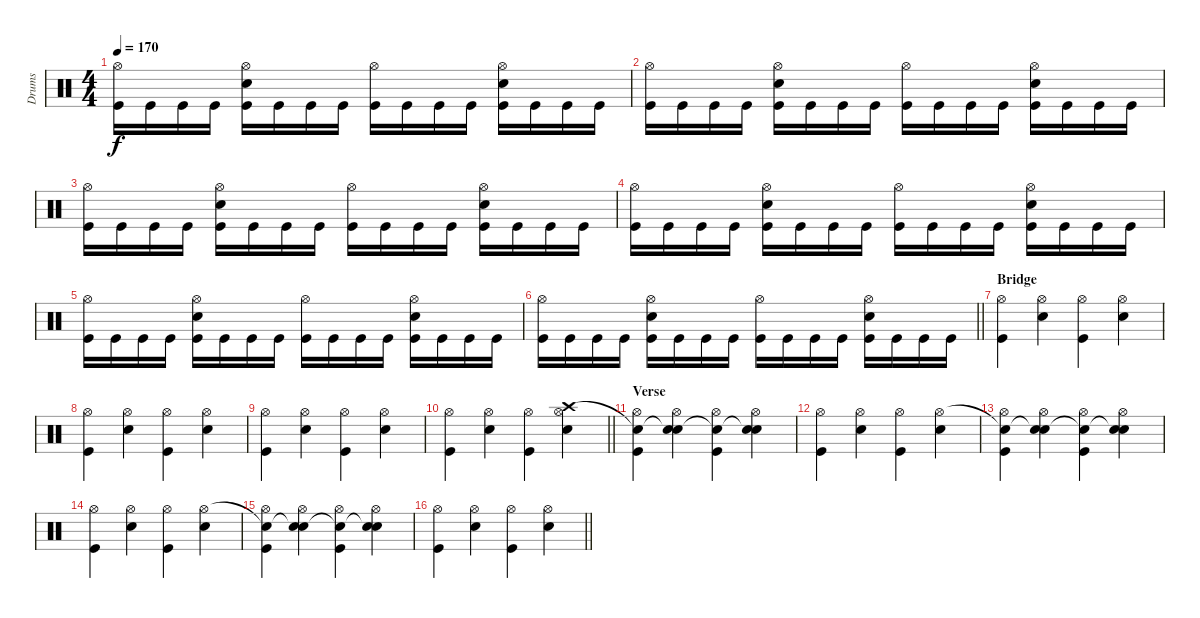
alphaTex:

\track ("Drums" "Drums") {instrument percussion}
\staff {score}
\articulation defaults
\ts (4 4)
\tempo 170
\clef neutral
\ks c
("Hi-Hat (open)" "Kick (hit)").16{dy f} "Kick (hit)".16 "Kick (hit)".16 "Kick (hit)".16 ("Hi-Hat (open)" "Snare (hit) 2" "Kick (hit)").16 "Kick (hit)".16 "Kick (hit)".16 "Kick (hit)".16 ("Hi-Hat (open)" "Kick (hit)").16 "Kick (hit)".16 "Kick (hit)".16 "Kick (hit)".16 ("Hi-Hat (open)" "Snare (hit) 2" "Kick (hit)").16 "Kick (hit)".16 "Kick (hit)".16 "Kick (hit)".16 |
("Hi-Hat (open)" "Kick (hit)").16 "Kick (hit)".16 "Kick (hit)".16 "Kick (hit)".16 ("Hi-Hat (open)" "Snare (hit) 2" "Kick (hit)").16 "Kick (hit)".16 "Kick (hit)".16 "Kick (hit)".16 ("Hi-Hat (open)" "Kick (hit)").16 "Kick (hit)".16 "Kick (hit)".16 "Kick (hit)".16 ("Hi-Hat (open)" "Snare (hit) 2" "Kick (hit)").16 "Kick (hit)".16 "Kick (hit)".16 "Kick (hit)".16 |
("Hi-Hat (open)" "Kick (hit)").16 "Kick (hit)".16 "Kick (hit)".16 "Kick (hit)".16 ("Hi-Hat (open)" "Snare (hit) 2" "Kick (hit)").16 "Kick (hit)".16 "Kick (hit)".16 "Kick (hit)".16 ("Hi-Hat (open)" "Kick (hit)").16 "Kick (hit)".16 "Kick (hit)".16 "Kick (hit)".16 ("Hi-Hat (open)" "Snare (hit) 2" "Kick (hit)").16 "Kick (hit)".16 "Kick (hit)".16 "Kick (hit)".16 |
("Hi-Hat (open)" "Kick (hit)").16 "Kick (hit)".16 "Kick (hit)".16 "Kick (hit)".16 ("Hi-Hat (open)" "Snare (hit) 2" "Kick (hit)").16 "Kick (hit)".16 "Kick (hit)".16 "Kick (hit)".16 ("Hi-Hat (open)" "Kick (hit)").16 "Kick (hit)".16 "Kick (hit)".16 "Kick (hit)".16 ("Hi-Hat (open)" "Snare (hit) 2" "Kick (hit)").16 "Kick (hit)".16 "Kick (hit)".16 "Kick (hit)".16 |
("Hi-Hat (open)" "Kick (hit)").16 "Kick (hit)".16 "Kick (hit)".16 "Kick (hit)".16 ("Hi-Hat (open)" "Snare (hit) 2" "Kick (hit)").16 "Kick (hit)".16 "Kick (hit)".16 "Kick (hit)".16 ("Hi-Hat (open)" "Kick (hit)").16 "Kick (hit)".16 "Kick (hit)".16 "Kick (hit)".16 ("Hi-Hat (open)" "Snare (hit) 2" "Kick (hit)").16 "Kick (hit)".16 "Kick (hit)".16 "Kick (hit)".16 |
\barLineRight lightlight
("Hi-Hat (open)" "Kick (hit)").16 "Kick (hit)".16 "Kick (hit)".16 "Kick (hit)".16 ("Hi-Hat (open)" "Snare (hit) 2" "Kick (hit)").16 "Kick (hit)".16 "Kick (hit)".16 "Kick (hit)".16 ("Hi-Hat (open)" "Kick (hit)").16 "Kick (hit)".16 "Kick (hit)".16 "Kick (hit)".16 ("Hi-Hat (open)" "Snare (hit) 2" "Kick (hit)").16 "Kick (hit)".16 "Kick (hit)".16 "Kick (hit)".16 |
\section ("" "Bridge")
("Hi-Hat (open)" "Kick (hit)").4 ("Hi-Hat (open)" "Snare (hit) 2").4 ("Hi-Hat (open)" "Kick (hit)").4 ("Hi-Hat (open)" "Snare (hit) 2").4 |
("Hi-Hat (open)" "Kick (hit)").4 ("Hi-Hat (open)" "Snare (hit) 2").4 ("Hi-Hat (open)" "Kick (hit)").4 ("Hi-Hat (open)" "Snare (hit) 2").4 |
("Hi-Hat (open)" "Kick (hit)").4 ("Hi-Hat (open)" "Snare (hit) 2").4 ("Hi-Hat (open)" "Kick (hit)").4 ("Hi-Hat (open)" "Snare (hit) 2").4 |
\barLineRight lightlight
("Hi-Hat (open)" "Kick (hit)").4 ("Hi-Hat (open)" "Snare (hit) 2").4 ("Hi-Hat (open)" "Kick (hit)").4 ("Crash high (hit)" "Hi-Hat (open)" "Snare (hit) 2").4 |
\section ("" "Verse")
("Snare (hit)"{t} "Hi-Hat (open)" "Kick (hit)").4 ("Snare (hit)"{t} "Hi-Hat (open)" "Snare (hit) 2").4 ("Snare (hit)"{t} "Hi-Hat (open)" "Kick (hit)").4 ("Snare (hit)"{t} "Hi-Hat (open)" "Snare (hit) 2").4 |
("Hi-Hat (open)" "Kick (hit)").4 ("Hi-Hat (open)" "Snare (hit) 2").4 ("Hi-Hat (open)" "Kick (hit)").4 ("Hi-Hat (open)" "Snare (hit) 2").4 |
("Snare (hit)"{t} "Hi-Hat (open)" "Kick (hit)").4 ("Snare (hit)"{t} "Hi-Hat (open)" "Snare (hit) 2").4 ("Snare (hit)"{t} "Hi-Hat (open)" "Kick (hit)").4 ("Snare (hit)"{t} "Hi-Hat (open)" "Snare (hit) 2").4 |
("Hi-Hat (open)" "Kick (hit)").4 ("Hi-Hat (open)" "Snare (hit) 2").4 ("Hi-Hat (open)" "Kick (hit)").4 ("Hi-Hat (open)" "Snare (hit) 2").4 |
("Snare (hit)"{t} "Hi-Hat (open)" "Kick (hit)").4 ("Snare (hit)"{t} "Hi-Hat (open)" "Snare (hit) 2").4 ("Snare (hit)"{t} "Hi-Hat (open)" "Kick (hit)").4 ("Snare (hit)"{t} "Hi-Hat (open)" "Snare (hit) 2").4 |
\barLineRight lightlight
("Hi-Hat (open)" "Kick (hit)").4 ("Hi-Hat (open)" "Snare (hit) 2").4 ("Hi-Hat (open)" "Kick (hit)").4 ("Hi-Hat (open)" "Snare (hit) 2").4
